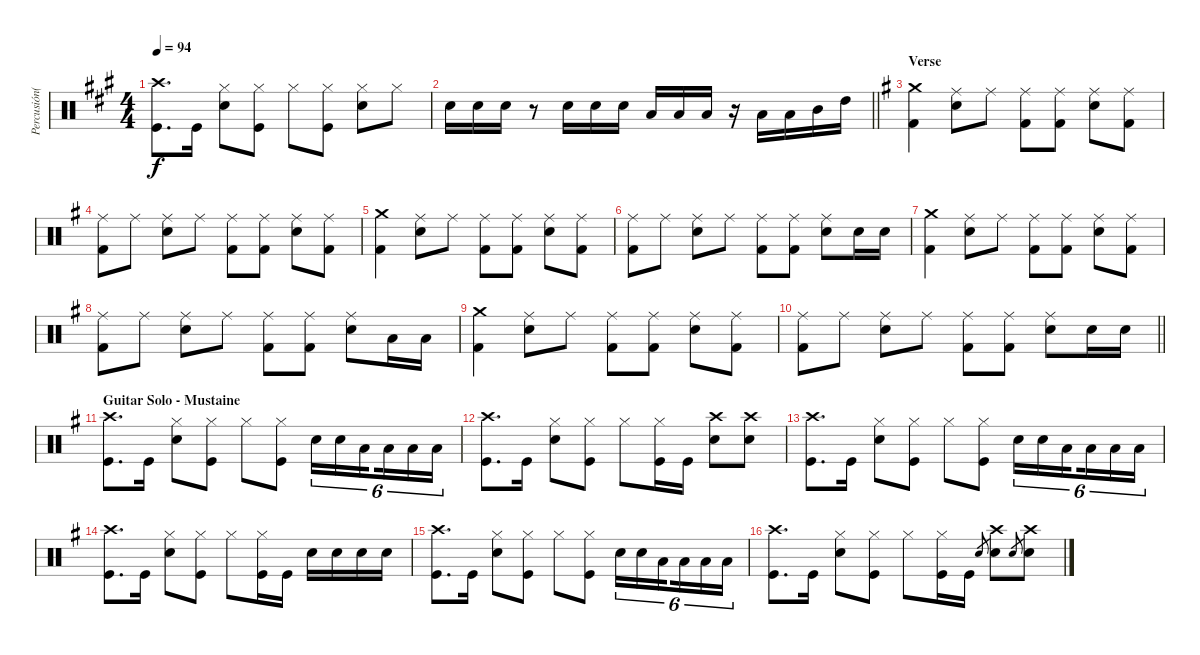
\track ("Percusión(S.Drover)" "Percusión(") {instrument percussion}
\staff {score}
\articulation defaults
\ts (4 4)
\tempo 94
\clef neutral
\ks a
("Kick (hit)" "Crash high (hit)").8{d dy f} "Kick (hit)".16 ("Hi-Hat (closed)" "Snare (hit) 2").8 ("Kick (hit)" "Hi-Hat (closed)").8 "Hi-Hat (closed)".8 ("Kick (hit)" "Hi-Hat (closed)").8 ("Hi-Hat (closed)" "Snare (hit) 2").8 "Hi-Hat (closed)".8 |
\barLineRight lightlight "Snare (hit) 2".16 "Snare (hit) 2".16 "Snare (hit) 2".16
r.8 "Snare (hit) 2".16 "Snare (hit) 2".16 "Snare (hit) 2".16 "Low Tom (hit)".16 "Low Tom (hit)".16 "Low Tom (hit)".16 r.16 "Low Tom (hit)".16 "Low Tom (hit)".16 "Mid Tom (hit)".16 "High Tom (hit)".16 |
\section ("" "Verse")
\ks g
("Crash medium (hit)" "Kick (hit) 2").4 ("Ride (middle)" "Snare (hit) 2").8 "Ride (middle)".8 ("Ride (middle)" "Kick (hit) 2").8 ("Ride (middle)" "Kick (hit) 2").8 ("Ride (middle)" "Snare (hit) 2").8 ("Ride (middle)" "Kick (hit) 2").8 |
("Ride (middle)" "Kick (hit) 2").8 "Ride (middle)".8 ("Ride (middle)" "Snare (hit) 2").8 "Ride (middle)".8 ("Ride (middle)" "Kick (hit) 2").8 ("Ride (middle)" "Kick (hit) 2").8 ("Ride (middle)" "Snare (hit) 2").8 ("Ride (middle)" "Kick (hit) 2").8 |
("Crash medium (hit)" "Kick (hit) 2").4 ("Ride (middle)" "Snare (hit) 2").8 "Ride (middle)".8 ("Ride (middle)" "Kick (hit) 2").8 ("Ride (middle)" "Kick (hit) 2").8 ("Ride (middle)" "Snare (hit) 2").8 ("Ride (middle)" "Kick (hit) 2").8 |
("Ride (middle)" "Kick (hit) 2").8 "Ride (middle)".8 ("Ride (middle)" "Snare (hit) 2").8 "Ride (middle)".8 ("Ride (middle)" "Kick (hit) 2").8 ("Ride (middle)" "Kick (hit) 2").8 ("Ride (middle)" "Snare (hit) 2").8 "Snare (hit) 2".16 "Snare (hit) 2".16 |
("Crash medium (hit)" "Kick (hit) 2").4 ("Ride (middle)" "Snare (hit) 2").8 "Ride (middle)".8 ("Ride (middle)" "Kick (hit) 2").8 ("Ride (middle)" "Kick (hit) 2").8 ("Ride (middle)" "Snare (hit) 2").8 ("Ride (middle)" "Kick (hit) 2").8 |
("Ride (middle)" "Kick (hit) 2").8 "Ride (middle)".8 ("Ride (middle)" "Snare (hit) 2").8 "Ride (middle)".8 ("Ride (middle)" "Kick (hit) 2").8 ("Ride (middle)" "Kick (hit) 2").8 ("Ride (middle)" "Snare (hit) 2").8 "Low Tom (hit)".16 "Low Tom (hit)".16 |
("Crash medium (hit)" "Kick (hit) 2").4 ("Ride (middle)" "Snare (hit) 2").8 "Ride (middle)".8 ("Ride (middle)" "Kick (hit) 2").8 ("Ride (middle)" "Kick (hit) 2").8 ("Ride (middle)" "Snare (hit) 2").8 ("Ride (middle)" "Kick (hit) 2").8 |
\barLineRight lightlight
("Ride (middle)" "Kick (hit) 2").8 "Ride (middle)".8 ("Ride (middle)" "Snare (hit) 2").8 "Ride (middle)".8 ("Ride (middle)" "Kick (hit) 2").8 ("Ride (middle)" "Kick (hit) 2").8 ("Ride (middle)" "Snare (hit) 2").8 "Snare (hit) 2".16 "Snare (hit) 2".16 |
\section ("" "Guitar Solo - Mustaine")
("Kick (hit)" "Crash high (hit)").8{d} "Kick (hit)".16 ("Hi-Hat (closed)" "Snare (hit) 2").8 ("Kick (hit)" "Hi-Hat (closed)").8 "Hi-Hat (closed)".8 ("Kick (hit)" "Hi-Hat (closed)").8 "Snare (hit) 2".16{tu (6 4)} "Snare (hit) 2".16{tu (6 4)} "Low Tom (hit)".16{tu (6 4) beam splitsecondary} "Low Tom (hit)".16{tu (6 4)} "Low Tom (hit)".16{tu (6 4)} "Low Tom (hit)".16{tu (6 4)} |
("Kick (hit)" "Crash high (hit)").8{d} "Kick (hit)".16 ("Hi-Hat (closed)" "Snare (hit) 2").8 ("Kick (hit)" "Hi-Hat (closed)").8 "Hi-Hat (closed)".8 ("Kick (hit)" "Hi-Hat (closed)").16 "Kick (hit)".16 ("Crash high (hit)" "Snare (hit) 2").8 ("Crash high (hit)" "Snare (hit) 2").8 |
("Kick (hit)" "Crash high (hit)").8{d} "Kick (hit)".16 ("Hi-Hat (closed)" "Snare (hit) 2").8 ("Kick (hit)" "Hi-Hat (closed)").8 "Hi-Hat (closed)".8 ("Kick (hit)" "Hi-Hat (closed)").8 "Snare (hit) 2".16{tu (6 4)} "Snare (hit) 2".16{tu (6 4)} "Low Tom (hit)".16{tu (6 4) beam splitsecondary} "Low Tom (hit)".16{tu (6 4)} "Low Tom (hit)".16{tu (6 4)} "Low Tom (hit)".16{tu (6 4)} |
("Kick (hit)" "Crash high (hit)").8{d} "Kick (hit)".16 ("Hi-Hat (closed)" "Snare (hit) 2").8 ("Kick (hit)" "Hi-Hat (closed)").8 "Hi-Hat (closed)".8 ("Kick (hit)" "Hi-Hat (closed)").16 "Kick (hit)".16 "Snare (hit) 2".16 "Snare (hit) 2".16 "Snare (hit) 2".16 "Snare (hit) 2".16 |
("Kick (hit)" "Crash high (hit)").8{d} "Kick (hit)".16 ("Hi-Hat (closed)" "Snare (hit) 2").8 ("Kick (hit)" "Hi-Hat (closed)").8 "Hi-Hat (closed)".8 ("Kick (hit)" "Hi-Hat (closed)").8 "Snare (hit) 2".16{tu (6 4)} "Snare (hit) 2".16{tu (6 4)} "Low Tom (hit)".16{tu (6 4) beam splitsecondary} "Low Tom (hit)".16{tu (6 4)} "Low Tom (hit)".16{tu (6 4)} "Low Tom (hit)".16{tu (6 4)} |
("Kick (hit)" "Crash high (hit)").8{d} "Kick (hit)".16 ("Hi-Hat (closed)" "Snare (hit) 2").8 ("Kick (hit)" "Hi-Hat (closed)").8 "Hi-Hat (closed)".8 ("Kick (hit)" "Hi-Hat (closed)").16 "Kick (hit)".16 "Snare (hit) 2".8{gr} ("Crash high (hit)" "Snare (hit) 2").8 "Snare (hit) 2".8{gr} ("Crash high (hit)" "Snare (hit) 2").8
